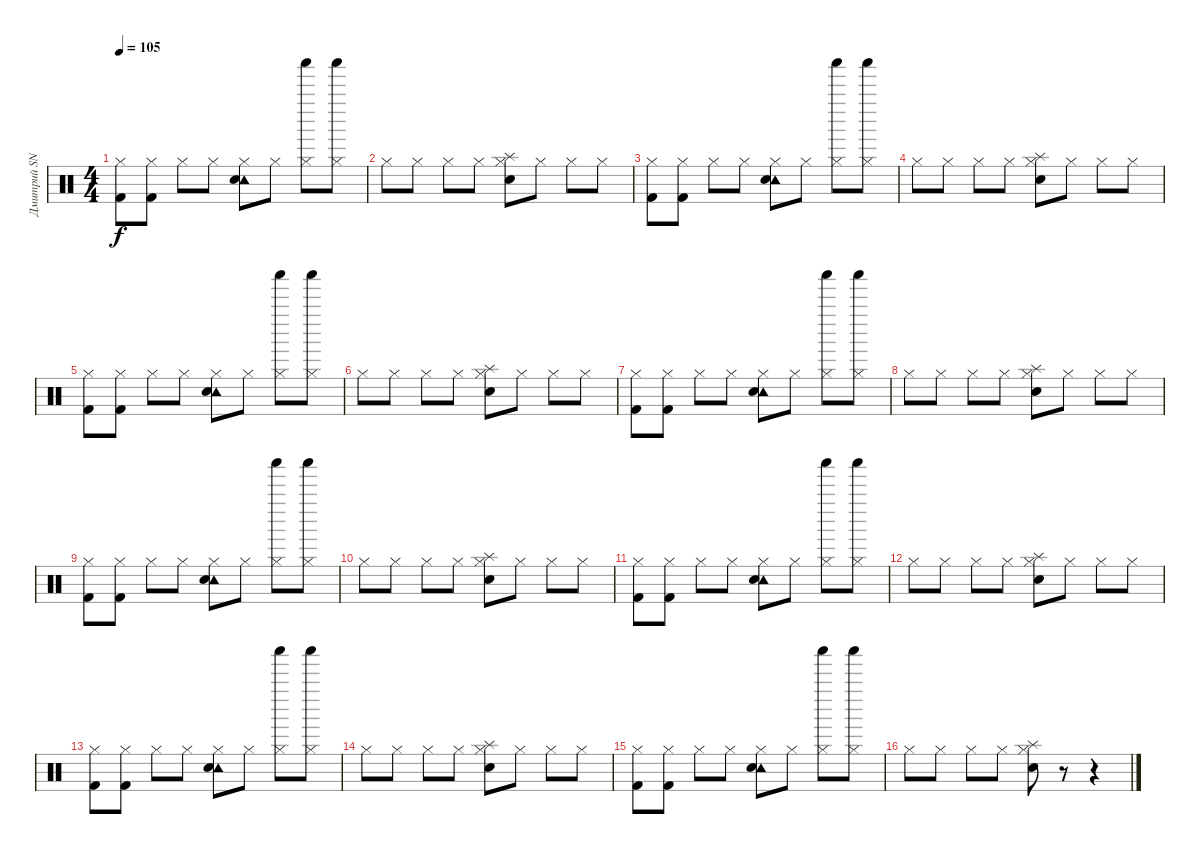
\track ("Дмитрий SNAKE Хакимов" "Дмитрий SN") {instrument percussion}
\staff {score}
\articulation defaults
\ts (4 4)
\tempo 105
\clef neutral
\ks c
("Hi-Hat (closed)" "Kick (hit) 2").8{dy f} ("Hi-Hat (closed)" "Kick (hit) 2").8 "Hi-Hat (closed)".8 "Hi-Hat (closed)".8 ("Hi-Hat (closed)" "Tambourine (hit)" "Metronome (bell)").8 "Hi-Hat (closed)".8 ("Hi-Hat (closed)" "Shaker (hit)").8 ("Hi-Hat (closed)" "Shaker (hit)").8 |
"Hi-Hat (closed)".8 "Hi-Hat (closed)".8 "Hi-Hat (closed)".8 "Hi-Hat (closed)".8 ("Hi-Hat (closed)" "Splash (hit)" "Metronome (bell)").8 "Hi-Hat (closed)".8 "Hi-Hat (closed)".8 "Hi-Hat (closed)".8 |
("Hi-Hat (closed)" "Kick (hit) 2").8 ("Hi-Hat (closed)" "Kick (hit) 2").8 "Hi-Hat (closed)".8 "Hi-Hat (closed)".8 ("Hi-Hat (closed)" "Tambourine (hit)" "Metronome (bell)").8 "Hi-Hat (closed)".8 ("Hi-Hat (closed)" "Shaker (hit)").8 ("Hi-Hat (closed)" "Shaker (hit)").8 |
"Hi-Hat (closed)".8 "Hi-Hat (closed)".8 "Hi-Hat (closed)".8 "Hi-Hat (closed)".8 ("Hi-Hat (closed)" "Splash (hit)" "Metronome (bell)").8 "Hi-Hat (closed)".8 "Hi-Hat (closed)".8 "Hi-Hat (closed)".8 |
("Hi-Hat (closed)" "Kick (hit) 2").8 ("Hi-Hat (closed)" "Kick (hit) 2").8 "Hi-Hat (closed)".8 "Hi-Hat (closed)".8 ("Hi-Hat (closed)" "Tambourine (hit)" "Metronome (bell)").8 "Hi-Hat (closed)".8 ("Hi-Hat (closed)" "Shaker (hit)").8 ("Hi-Hat (closed)" "Shaker (hit)").8 |
"Hi-Hat (closed)".8 "Hi-Hat (closed)".8 "Hi-Hat (closed)".8 "Hi-Hat (closed)".8 ("Hi-Hat (closed)" "Splash (hit)" "Metronome (bell)").8 "Hi-Hat (closed)".8 "Hi-Hat (closed)".8 "Hi-Hat (closed)".8 |
("Hi-Hat (closed)" "Kick (hit) 2").8 ("Hi-Hat (closed)" "Kick (hit) 2").8 "Hi-Hat (closed)".8 "Hi-Hat (closed)".8 ("Hi-Hat (closed)" "Tambourine (hit)" "Metronome (bell)").8 "Hi-Hat (closed)".8 ("Hi-Hat (closed)" "Shaker (hit)").8 ("Hi-Hat (closed)" "Shaker (hit)").8 |
"Hi-Hat (closed)".8 "Hi-Hat (closed)".8 "Hi-Hat (closed)".8 "Hi-Hat (closed)".8 ("Hi-Hat (closed)" "Splash (hit)" "Metronome (bell)").8 "Hi-Hat (closed)".8 "Hi-Hat (closed)".8 "Hi-Hat (closed)".8 |
("Hi-Hat (closed)" "Kick (hit) 2").8 ("Hi-Hat (closed)" "Kick (hit) 2").8 "Hi-Hat (closed)".8 "Hi-Hat (closed)".8 ("Hi-Hat (closed)" "Tambourine (hit)" "Metronome (bell)").8 "Hi-Hat (closed)".8 ("Hi-Hat (closed)" "Shaker (hit)").8 ("Hi-Hat (closed)" "Shaker (hit)").8 |
"Hi-Hat (closed)".8 "Hi-Hat (closed)".8 "Hi-Hat (closed)".8 "Hi-Hat (closed)".8 ("Hi-Hat (closed)" "Splash (hit)" "Metronome (bell)").8 "Hi-Hat (closed)".8 "Hi-Hat (closed)".8 "Hi-Hat (closed)".8 |
("Hi-Hat (closed)" "Kick (hit) 2").8 ("Hi-Hat (closed)" "Kick (hit) 2").8 "Hi-Hat (closed)".8 "Hi-Hat (closed)".8 ("Hi-Hat (closed)" "Tambourine (hit)" "Metronome (bell)").8 "Hi-Hat (closed)".8 ("Hi-Hat (closed)" "Shaker (hit)").8 ("Hi-Hat (closed)" "Shaker (hit)").8 |
"Hi-Hat (closed)".8 "Hi-Hat (closed)".8 "Hi-Hat (closed)".8 "Hi-Hat (closed)".8 ("Hi-Hat (closed)" "Splash (hit)" "Metronome (bell)").8 "Hi-Hat (closed)".8 "Hi-Hat (closed)".8 "Hi-Hat (closed)".8 |
("Hi-Hat (closed)" "Kick (hit) 2").8 ("Hi-Hat (closed)" "Kick (hit) 2").8 "Hi-Hat (closed)".8 "Hi-Hat (closed)".8 ("Hi-Hat (closed)" "Tambourine (hit)" "Metronome (bell)").8 "Hi-Hat (closed)".8 ("Hi-Hat (closed)" "Shaker (hit)").8 ("Hi-Hat (closed)" "Shaker (hit)").8 |
"Hi-Hat (closed)".8 "Hi-Hat (closed)".8 "Hi-Hat (closed)".8 "Hi-Hat (closed)".8 ("Hi-Hat (closed)" "Splash (hit)" "Metronome (bell)").8 "Hi-Hat (closed)".8 "Hi-Hat (closed)".8 "Hi-Hat (closed)".8 |
("Hi-Hat (closed)" "Kick (hit) 2").8 ("Hi-Hat (closed)" "Kick (hit) 2").8 "Hi-Hat (closed)".8 "Hi-Hat (closed)".8 ("Hi-Hat (closed)" "Tambourine (hit)" "Metronome (bell)").8 "Hi-Hat (closed)".8 ("Hi-Hat (closed)" "Shaker (hit)").8 ("Hi-Hat (closed)" "Shaker (hit)").8 |
"Hi-Hat (closed)".8 "Hi-Hat (closed)".8 "Hi-Hat (closed)".8 "Hi-Hat (closed)".8 ("Hi-Hat (closed)" "Splash (hit)" "Metronome (bell)").8 r.8 r.4
